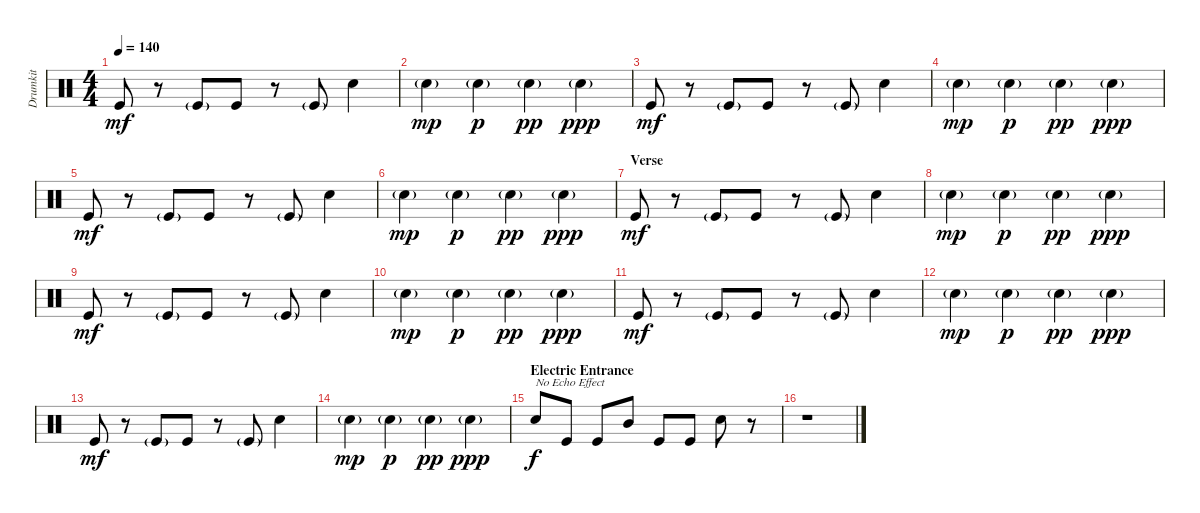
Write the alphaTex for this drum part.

\track ("Drumkit" "Drumkit") {instrument percussion}
\staff {score}
\articulation defaults
\ts (4 4)
\tempo 140
\clef neutral
\ks c "Kick (hit)".8{dy mf}
r.8 "Kick (hit)"{g}.8 "Kick (hit)".8 r.8 "Kick (hit)"{g}.8 "Snare (hit) 2".4 |
"Snare (hit) 2"{g}.4{dy mp} "Snare (hit) 2"{g}.4{dy p} "Snare (hit) 2"{g}.4{dy pp} "Snare (hit) 2"{g}.4{dy ppp} |
"Kick (hit)".8{dy mf} r.8 "Kick (hit)"{g}.8 "Kick (hit)".8 r.8 "Kick (hit)"{g}.8 "Snare (hit) 2".4 |
"Snare (hit) 2"{g}.4{dy mp} "Snare (hit) 2"{g}.4{dy p} "Snare (hit) 2"{g}.4{dy pp} "Snare (hit) 2"{g}.4{dy ppp} |
"Kick (hit)".8{dy mf} r.8 "Kick (hit)"{g}.8 "Kick (hit)".8 r.8 "Kick (hit)"{g}.8 "Snare (hit) 2".4 |
"Snare (hit) 2"{g}.4{dy mp} "Snare (hit) 2"{g}.4{dy p} "Snare (hit) 2"{g}.4{dy pp} "Snare (hit) 2"{g}.4{dy ppp} |
\section ("" "Verse")
"Kick (hit)".8{dy mf} r.8 "Kick (hit)"{g}.8 "Kick (hit)".8 r.8 "Kick (hit)"{g}.8 "Snare (hit) 2".4 |
"Snare (hit) 2"{g}.4{dy mp} "Snare (hit) 2"{g}.4{dy p} "Snare (hit) 2"{g}.4{dy pp} "Snare (hit) 2"{g}.4{dy ppp} |
"Kick (hit)".8{dy mf} r.8 "Kick (hit)"{g}.8 "Kick (hit)".8 r.8 "Kick (hit)"{g}.8 "Snare (hit) 2".4 |
"Snare (hit) 2"{g}.4{dy mp} "Snare (hit) 2"{g}.4{dy p} "Snare (hit) 2"{g}.4{dy pp} "Snare (hit) 2"{g}.4{dy ppp} |
"Kick (hit)".8{dy mf} r.8 "Kick (hit)"{g}.8 "Kick (hit)".8 r.8 "Kick (hit)"{g}.8 "Snare (hit) 2".4 |
"Snare (hit) 2"{g}.4{dy mp} "Snare (hit) 2"{g}.4{dy p} "Snare (hit) 2"{g}.4{dy pp} "Snare (hit) 2"{g}.4{dy ppp} |
"Kick (hit)".8{dy mf} r.8 "Kick (hit)"{g}.8 "Kick (hit)".8 r.8 "Kick (hit)"{g}.8 "Snare (hit) 2".4 |
"Snare (hit) 2"{g}.4{dy mp} "Snare (hit) 2"{g}.4{dy p} "Snare (hit) 2"{g}.4{dy pp} "Snare (hit) 2"{g}.4{dy ppp} |
\section ("" "Electric Entrance")
"Snare (hit) 2".8{txt "No Echo Effect" dy f} "Kick (hit)".8 "Kick (hit)".8 "Mid Tom (hit)".8 "Kick (hit)".8 "Kick (hit)".8 "Snare (hit) 2".8 r.8 |
r.1
